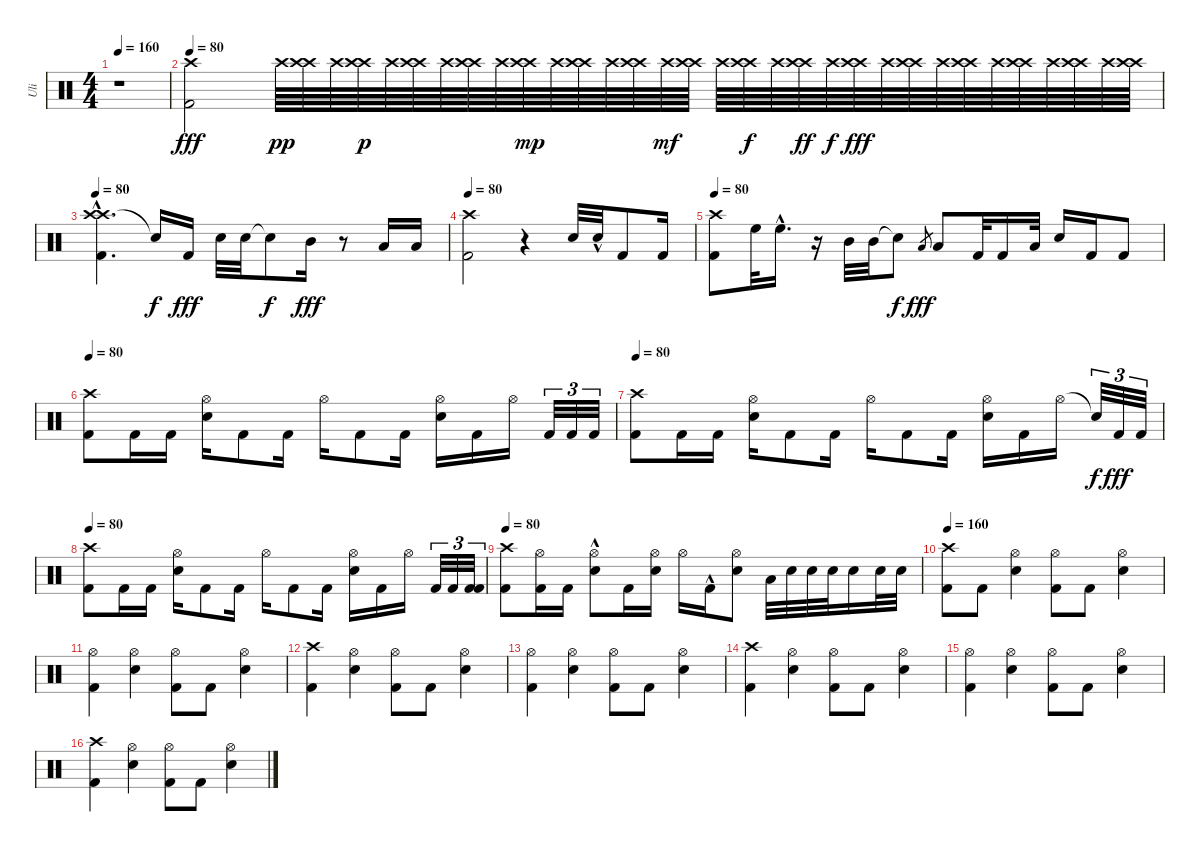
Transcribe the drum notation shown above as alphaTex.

\track ("Uli" "Uli") {instrument percussion}
\staff {score}
\articulation defaults
\ts (4 4)
\tempo 160
\tempo 80
\tempo 160
\clef neutral
\ks c
r.1{dy fff} |
\tempo 80
("Kick (hit) 2" "Crash high (hit)").2 "Crash high (hit)".64{dy pp} ("Crash high (hit)" "Crash high (hit)").64 "Crash high (hit)".64 ("Crash high (hit)" "Crash high (hit)").64{dy p} "Crash high (hit)".64 ("Crash high (hit)" "Crash high (hit)").64 "Crash high (hit)".64 ("Crash high (hit)" "Crash high (hit)").64 "Crash high (hit)".64 ("Crash high (hit)" "Crash high (hit)").64{dy mp} "Crash high (hit)".64 ("Crash high (hit)" "Crash high (hit)").64 "Crash high (hit)".64 ("Crash high (hit)" "Crash high (hit)").64 "Crash high (hit)".64{dy mf} ("Crash high (hit)" "Crash high (hit)").64 "Crash high (hit)".64 ("Crash high (hit)" "Crash high (hit)").64{dy f} "Crash high (hit)".64 ("Crash high (hit)" "Crash high (hit)").64{dy ff} "Crash high (hit)".64{dy f} ("Crash high (hit)" "Crash high (hit)").64{dy fff} "Crash high (hit)".64 ("Crash high (hit)" "Crash high (hit)").64 "Crash high (hit)".64 ("Crash high (hit)" "Crash high (hit)").64 "Crash high (hit)".64 ("Crash high (hit)" "Crash high (hit)").64 "Crash high (hit)".64 ("Crash high (hit)" "Crash high (hit)").64 "Crash high (hit)".64 ("Crash high (hit)" "Crash high (hit)").64 |
\tempo 80
("Crash high (hit)" "Kick (hit) 2" "Crash high (hit)"{hac}).4{d} "Snare (hit)"{t}.16{dy f} "Kick (hit) 2".16{dy fff} "Electric Snare (hit)".32 "Electric Snare (hit)".32 "Snare (hit)"{t}.8{dy f} "Mid Tom (hit)".16{dy fff} r.8 "Low Tom (hit)".16 "Low Tom (hit)".16 |
\tempo 80
("Kick (hit) 2" "Crash high (hit)").2 r.4 "Electric Snare (hit)".32 "Electric Snare (hit)"{hac}.32 "Kick (hit) 2".8 "Kick (hit) 2".16 |
\tempo 80
("Kick (hit) 2" "Crash high (hit)").8 "High Floor Tom (hit)".32 "High Floor Tom (hit)"{hac}.16{d} r.16 "Mid Tom (hit)".32 "Mid Tom (hit)".32 "Snare (hit)"{t}.8{dy f} "Low Tom (hit)".8{gr dy fff} "Low Tom (hit)".8 "Kick (hit) 2".32 "Kick (hit) 2".16 "Low Floor Tom (hit)".32 "Electric Snare (hit)".16 "Kick (hit) 2".16 "Kick (hit) 2".8 |
\tempo 80
("Crash high (hit)" "Kick (hit) 2").8 "Kick (hit) 2".16 "Kick (hit) 2".16 ("Electric Snare (hit)" "Hi-Hat (open)").16 "Kick (hit) 2".8 "Kick (hit) 2".16 "Hi-Hat (open)".16 "Kick (hit) 2".8 "Kick (hit) 2".16 ("Hi-Hat (open)" "Electric Snare (hit)").16 "Kick (hit) 2".16 "Hi-Hat (open)".16 "Kick (hit) 2".32{tu (3 2)} "Kick (hit) 2".32{tu (3 2)} "Kick (hit) 2".32{tu (3 2)} |
\tempo 80
("Kick (hit) 2" "Crash high (hit)").8 "Kick (hit) 2".16 "Kick (hit) 2".16 ("Electric Snare (hit)" "Hi-Hat (open)").16 "Kick (hit) 2".8 "Kick (hit) 2".16 "Hi-Hat (open)".16 "Kick (hit) 2".8 "Kick (hit) 2".16 ("Hi-Hat (open)" "Electric Snare (hit)").16 "Kick (hit) 2".16 "Hi-Hat (open)".16 "Snare (hit)"{t}.32{tu (3 2) dy f} "Kick (hit) 2".32{tu (3 2) dy fff} "Kick (hit) 2".32{tu (3 2)} |
\tempo 80
("Crash high (hit)" "Kick (hit) 2").8 "Kick (hit) 2".16 "Kick (hit) 2".16 ("Electric Snare (hit)" "Hi-Hat (open)").16 "Kick (hit) 2".8 "Kick (hit) 2".16 "Hi-Hat (open)".16 "Kick (hit) 2".8 "Kick (hit) 2".16 ("Hi-Hat (open)" "Electric Snare (hit)").16 "Kick (hit) 2".16 "Hi-Hat (open)".16 "Kick (hit) 2".32{tu (3 2)} "Kick (hit) 2".32{tu (3 2)} ("Kick (hit) 2" "Kick (hit) 2").32{tu (3 2)} |
\tempo 80
("Kick (hit) 2" "Crash high (hit)").8 ("Kick (hit) 2" "Hi-Hat (open)").16 "Kick (hit) 2".16 ("Hi-Hat (open)"{hac} "Electric Snare (hit)"{hac}).8 "Kick (hit) 2".16 ("Hi-Hat (open)" "Electric Snare (hit)").16 "Hi-Hat (open)".16 "Kick (hit) 2"{hac}.16 ("Hi-Hat (open)" "Electric Snare (hit)").8 "Low Tom (hit)".32 "Electric Snare (hit)".32 "Electric Snare (hit)".32 "Electric Snare (hit)".32 "Electric Snare (hit)".16 "Electric Snare (hit)".32 "Electric Snare (hit)".32 |
\tempo 160
("Kick (hit) 2" "Crash high (hit)").8 "Kick (hit) 2".8 ("Electric Snare (hit)" "Hi-Hat (open)").4 ("Kick (hit) 2" "Hi-Hat (open)").8 "Kick (hit) 2".8 ("Electric Snare (hit)" "Hi-Hat (open)").4 |
("Hi-Hat (open)" "Kick (hit) 2").4 ("Electric Snare (hit)" "Hi-Hat (open)").4 ("Kick (hit) 2" "Hi-Hat (open)").8 "Kick (hit) 2".8 ("Electric Snare (hit)" "Hi-Hat (open)").4 |
("Kick (hit) 2" "Crash high (hit)").4 ("Electric Snare (hit)" "Hi-Hat (open)").4 ("Kick (hit) 2" "Hi-Hat (open)").8 "Kick (hit) 2".8 ("Electric Snare (hit)" "Hi-Hat (open)").4 |
("Hi-Hat (open)" "Kick (hit) 2").4 ("Electric Snare (hit)" "Hi-Hat (open)").4 ("Kick (hit) 2" "Hi-Hat (open)").8 "Kick (hit) 2".8 ("Electric Snare (hit)" "Hi-Hat (open)").4 |
("Kick (hit) 2" "Crash high (hit)").4 ("Electric Snare (hit)" "Hi-Hat (open)").4 ("Kick (hit) 2" "Hi-Hat (open)").8 "Kick (hit) 2".8 ("Electric Snare (hit)" "Hi-Hat (open)").4 |
("Hi-Hat (open)" "Kick (hit) 2").4 ("Electric Snare (hit)" "Hi-Hat (open)").4 ("Kick (hit) 2" "Hi-Hat (open)").8 "Kick (hit) 2".8 ("Electric Snare (hit)" "Hi-Hat (open)").4 |
("Kick (hit) 2" "Crash high (hit)").4 ("Electric Snare (hit)" "Hi-Hat (open)").4 ("Kick (hit) 2" "Hi-Hat (open)").8 "Kick (hit) 2".8 ("Electric Snare (hit)" "Hi-Hat (open)").4
